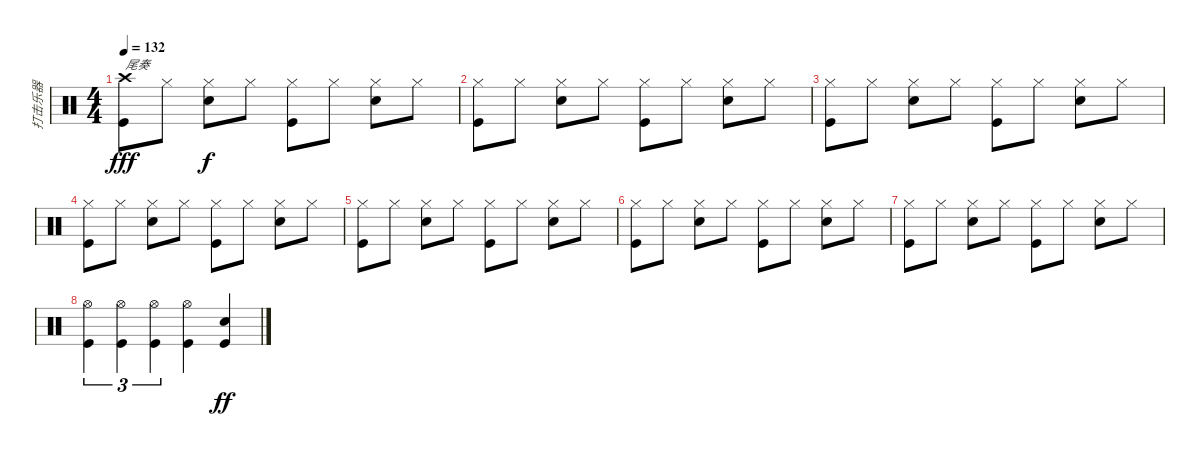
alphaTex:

\track ("打击乐器" "打击乐器") {instrument percussion}
\staff {score}
\articulation defaults
\ts (4 4)
\tempo 132
\clef neutral
\ks c
("Crash high (hit)" "Kick (hit)").8{txt "尾奏" dy fff} "Hi-Hat (closed)".8 ("Snare (hit) 2" "Hi-Hat (closed)").8{dy f} "Hi-Hat (closed)".8 ("Kick (hit)" "Hi-Hat (closed)").8 "Hi-Hat (closed)".8 ("Snare (hit) 2" "Hi-Hat (closed)").8 "Hi-Hat (closed)".8 |
("Hi-Hat (closed)" "Kick (hit)").8 "Hi-Hat (closed)".8 ("Hi-Hat (closed)" "Snare (hit) 2").8 "Hi-Hat (closed)".8 ("Hi-Hat (closed)" "Kick (hit)").8 "Hi-Hat (closed)".8 ("Hi-Hat (closed)" "Snare (hit) 2").8 "Hi-Hat (closed)".8 |
("Hi-Hat (closed)" "Kick (hit)").8 "Hi-Hat (closed)".8 ("Hi-Hat (closed)" "Snare (hit) 2").8 "Hi-Hat (closed)".8 ("Hi-Hat (closed)" "Kick (hit)").8 "Hi-Hat (closed)".8 ("Hi-Hat (closed)" "Snare (hit) 2").8 "Hi-Hat (closed)".8 |
("Hi-Hat (closed)" "Kick (hit)").8 "Hi-Hat (closed)".8 ("Hi-Hat (closed)" "Snare (hit) 2").8 "Hi-Hat (closed)".8 ("Hi-Hat (closed)" "Kick (hit)").8 "Hi-Hat (closed)".8 ("Hi-Hat (closed)" "Snare (hit) 2").8 "Hi-Hat (closed)".8 |
("Hi-Hat (closed)" "Kick (hit)").8 "Hi-Hat (closed)".8 ("Hi-Hat (closed)" "Snare (hit) 2").8 "Hi-Hat (closed)".8 ("Hi-Hat (closed)" "Kick (hit)").8 "Hi-Hat (closed)".8 ("Hi-Hat (closed)" "Snare (hit) 2").8 "Hi-Hat (closed)".8 |
("Hi-Hat (closed)" "Kick (hit)").8 "Hi-Hat (closed)".8 ("Hi-Hat (closed)" "Snare (hit) 2").8 "Hi-Hat (closed)".8 ("Hi-Hat (closed)" "Kick (hit)").8 "Hi-Hat (closed)".8 ("Hi-Hat (closed)" "Snare (hit) 2").8 "Hi-Hat (closed)".8 |
("Hi-Hat (closed)" "Kick (hit)").8 "Hi-Hat (closed)".8 ("Hi-Hat (closed)" "Snare (hit) 2").8 "Hi-Hat (closed)".8 ("Hi-Hat (closed)" "Kick (hit)").8 "Hi-Hat (closed)".8 ("Hi-Hat (closed)" "Snare (hit) 2").8 "Hi-Hat (closed)".8 |
("Hi-Hat (open)" "Kick (hit)").4{tu (3 2)} ("Hi-Hat (open)" "Kick (hit)").4{tu (3 2)} ("Hi-Hat (open)" "Kick (hit)").4{tu (3 2)} ("Kick (hit)" "Hi-Hat (open)").4 ("Snare (hit) 2" "Kick (hit)").4{dy ff}
